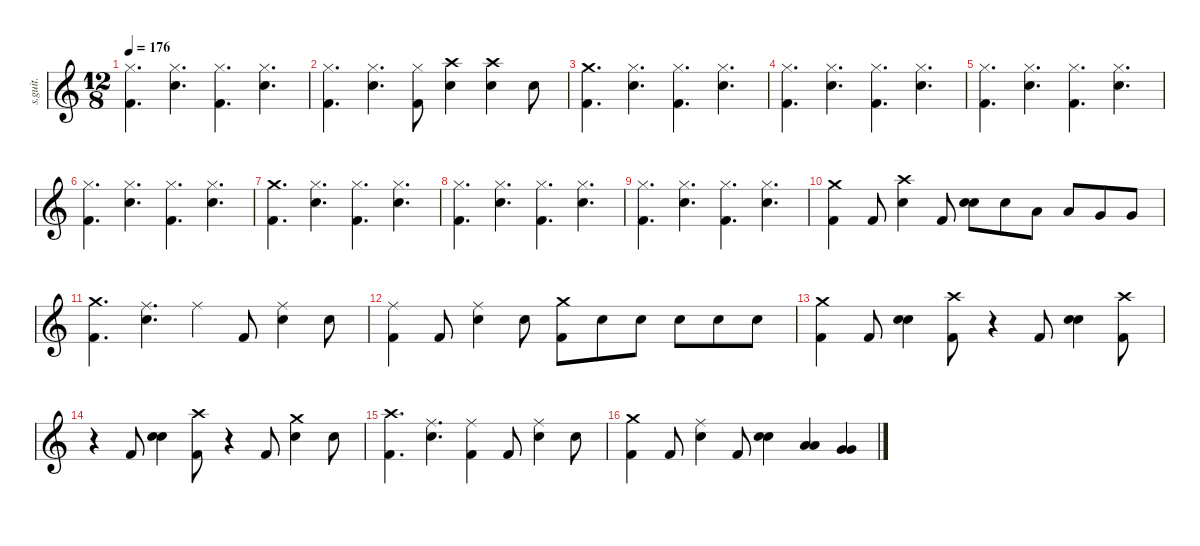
\defaultSystemsLayout 4
\hideDynamics
\bracketExtendMode nobrackets
\track ("Vinnie Paul" "s.guit.") {instrument percussion}
\staff {score}
\articulation defaults
\ts (12 8)
\tempo 176
\clef g2
\ks c
("Hi-Hat (closed)" "Kick (hit) 2").4{d lyrics (0 "") lyrics (1 "") lyrics (2 "") lyrics (3 "") lyrics (4 "") dy f} ("Hi-Hat (closed)" "Snare (hit) 2").4{d lyrics (0 "") lyrics (1 "") lyrics (2 "") lyrics (3 "") lyrics (4 "")} ("Hi-Hat (closed)" "Kick (hit) 2").4{d lyrics (0 "") lyrics (1 "") lyrics (2 "") lyrics (3 "") lyrics (4 "")} ("Hi-Hat (closed)" "Snare (hit) 2").4{d lyrics (0 "") lyrics (1 "") lyrics (2 "") lyrics (3 "") lyrics (4 "")} |
("Hi-Hat (closed)" "Kick (hit) 2").4{d lyrics (0 "") lyrics (1 "") lyrics (2 "") lyrics (3 "") lyrics (4 "")} ("Hi-Hat (closed)" "Snare (hit) 2").4{d lyrics (0 "") lyrics (1 "") lyrics (2 "") lyrics (3 "") lyrics (4 "")} ("Hi-Hat (closed)" "Kick (hit) 2").8{lyrics (0 "") lyrics (1 "") lyrics (2 "") lyrics (3 "") lyrics (4 "")} ("Crash high (hit)" "Snare (hit) 2").4{lyrics (0 "") lyrics (1 "") lyrics (2 "") lyrics (3 "") lyrics (4 "")} ("Crash high (hit)" "Snare (hit) 2").4{lyrics (0 "") lyrics (1 "") lyrics (2 "") lyrics (3 "") lyrics (4 "")} "Snare (hit) 2".8{lyrics (0 "") lyrics (1 "") lyrics (2 "") lyrics (3 "") lyrics (4 "")} |
("Crash medium (hit)" "Kick (hit) 2").4{d lyrics (0 "") lyrics (1 "") lyrics (2 "") lyrics (3 "") lyrics (4 "")} ("Hi-Hat (closed)" "Snare (hit) 2").4{d lyrics (0 "") lyrics (1 "") lyrics (2 "") lyrics (3 "") lyrics (4 "")} ("Hi-Hat (closed)" "Kick (hit) 2").4{d lyrics (0 "") lyrics (1 "") lyrics (2 "") lyrics (3 "") lyrics (4 "")} ("Hi-Hat (closed)" "Snare (hit) 2").4{d lyrics (0 "") lyrics (1 "") lyrics (2 "") lyrics (3 "") lyrics (4 "")} |
("Hi-Hat (closed)" "Kick (hit) 2").4{d lyrics (0 "") lyrics (1 "") lyrics (2 "") lyrics (3 "") lyrics (4 "")} ("Hi-Hat (closed)" "Snare (hit) 2").4{d lyrics (0 "") lyrics (1 "") lyrics (2 "") lyrics (3 "") lyrics (4 "")} ("Hi-Hat (closed)" "Kick (hit) 2").4{d lyrics (0 "") lyrics (1 "") lyrics (2 "") lyrics (3 "") lyrics (4 "")} ("Hi-Hat (closed)" "Snare (hit) 2").4{d lyrics (0 "") lyrics (1 "") lyrics (2 "") lyrics (3 "") lyrics (4 "")} |
("Hi-Hat (closed)" "Kick (hit) 2").4{d lyrics (0 "") lyrics (1 "") lyrics (2 "") lyrics (3 "") lyrics (4 "")} ("Hi-Hat (closed)" "Snare (hit) 2").4{d lyrics (0 "") lyrics (1 "") lyrics (2 "") lyrics (3 "") lyrics (4 "")} ("Hi-Hat (closed)" "Kick (hit) 2").4{d lyrics (0 "") lyrics (1 "") lyrics (2 "") lyrics (3 "") lyrics (4 "")} ("Hi-Hat (closed)" "Snare (hit) 2").4{d lyrics (0 "") lyrics (1 "") lyrics (2 "") lyrics (3 "") lyrics (4 "")} |
("Hi-Hat (closed)" "Kick (hit) 2").4{d lyrics (0 "") lyrics (1 "") lyrics (2 "") lyrics (3 "") lyrics (4 "")} ("Hi-Hat (closed)" "Snare (hit) 2").4{d lyrics (0 "") lyrics (1 "") lyrics (2 "") lyrics (3 "") lyrics (4 "")} ("Hi-Hat (closed)" "Kick (hit) 2").4{d lyrics (0 "") lyrics (1 "") lyrics (2 "") lyrics (3 "") lyrics (4 "")} ("Hi-Hat (closed)" "Snare (hit) 2").4{d lyrics (0 "") lyrics (1 "") lyrics (2 "") lyrics (3 "") lyrics (4 "")} |
("Crash medium (hit)" "Kick (hit) 2").4{d lyrics (0 "") lyrics (1 "") lyrics (2 "") lyrics (3 "") lyrics (4 "")} ("Hi-Hat (closed)" "Snare (hit) 2").4{d lyrics (0 "") lyrics (1 "") lyrics (2 "") lyrics (3 "") lyrics (4 "")} ("Hi-Hat (closed)" "Kick (hit) 2").4{d lyrics (0 "") lyrics (1 "") lyrics (2 "") lyrics (3 "") lyrics (4 "")} ("Hi-Hat (closed)" "Snare (hit) 2").4{d lyrics (0 "") lyrics (1 "") lyrics (2 "") lyrics (3 "") lyrics (4 "")} |
("Hi-Hat (closed)" "Kick (hit) 2").4{d lyrics (0 "") lyrics (1 "") lyrics (2 "") lyrics (3 "") lyrics (4 "")} ("Hi-Hat (closed)" "Snare (hit) 2").4{d lyrics (0 "") lyrics (1 "") lyrics (2 "") lyrics (3 "") lyrics (4 "")} ("Hi-Hat (closed)" "Kick (hit) 2").4{d lyrics (0 "") lyrics (1 "") lyrics (2 "") lyrics (3 "") lyrics (4 "")} ("Hi-Hat (closed)" "Snare (hit) 2").4{d lyrics (0 "") lyrics (1 "") lyrics (2 "") lyrics (3 "") lyrics (4 "")} |
("Hi-Hat (closed)" "Kick (hit) 2").4{d lyrics (0 "") lyrics (1 "") lyrics (2 "") lyrics (3 "") lyrics (4 "")} ("Hi-Hat (closed)" "Snare (hit) 2").4{d lyrics (0 "") lyrics (1 "") lyrics (2 "") lyrics (3 "") lyrics (4 "")} ("Hi-Hat (closed)" "Kick (hit) 2").4{d lyrics (0 "") lyrics (1 "") lyrics (2 "") lyrics (3 "") lyrics (4 "")} ("Hi-Hat (closed)" "Snare (hit) 2").4{d lyrics (0 "") lyrics (1 "") lyrics (2 "") lyrics (3 "") lyrics (4 "")} |
("Crash medium (hit)" "Kick (hit) 2").4{lyrics (0 "") lyrics (1 "") lyrics (2 "") lyrics (3 "") lyrics (4 "")} "Kick (hit) 2".8{lyrics (0 "") lyrics (1 "") lyrics (2 "") lyrics (3 "") lyrics (4 "")} ("Crash high (hit)" "Snare (hit) 2").4{lyrics (0 "") lyrics (1 "") lyrics (2 "") lyrics (3 "") lyrics (4 "")} "Kick (hit) 2".8{lyrics (0 "") lyrics (1 "") lyrics (2 "") lyrics (3 "") lyrics (4 "")} ("Snare (hit) 2" "Snare (hit) 2").8{lyrics (0 "") lyrics (1 "") lyrics (2 "") lyrics (3 "") lyrics (4 "")} "Snare (hit) 2".8{lyrics (0 "") lyrics (1 "") lyrics (2 "") lyrics (3 "") lyrics (4 "")} "Low Tom (hit)".8{lyrics (0 "") lyrics (1 "") lyrics (2 "") lyrics (3 "") lyrics (4 "")} "Low Tom (hit)".8{lyrics (0 "") lyrics (1 "") lyrics (2 "") lyrics (3 "") lyrics (4 "")} "Very Low Tom (hit)".8{lyrics (0 "") lyrics (1 "") lyrics (2 "") lyrics (3 "") lyrics (4 "")} "Very Low Tom (hit)".8{lyrics (0 "") lyrics (1 "") lyrics (2 "") lyrics (3 "") lyrics (4 "")} |
("Crash medium (hit)" "Kick (hit) 2").4{d lyrics (0 "") lyrics (1 "") lyrics (2 "") lyrics (3 "") lyrics (4 "")} ("Ride (middle)" "Snare (hit) 2").4{d lyrics (0 "") lyrics (1 "") lyrics (2 "") lyrics (3 "") lyrics (4 "")} "Ride (middle)".4{lyrics (0 "") lyrics (1 "") lyrics (2 "") lyrics (3 "") lyrics (4 "")} "Kick (hit) 2".8{lyrics (0 "") lyrics (1 "") lyrics (2 "") lyrics (3 "") lyrics (4 "")} ("Ride (middle)" "Snare (hit) 2").4{lyrics (0 "") lyrics (1 "") lyrics (2 "") lyrics (3 "") lyrics (4 "")} "Snare (hit) 2".8{lyrics (0 "") lyrics (1 "") lyrics (2 "") lyrics (3 "") lyrics (4 "")} |
("Ride (middle)" "Kick (hit) 2").4{lyrics (0 "") lyrics (1 "") lyrics (2 "") lyrics (3 "") lyrics (4 "")} "Kick (hit) 2".8{lyrics (0 "") lyrics (1 "") lyrics (2 "") lyrics (3 "") lyrics (4 "")} ("Ride (middle)" "Snare (hit) 2").4{lyrics (0 "") lyrics (1 "") lyrics (2 "") lyrics (3 "") lyrics (4 "")} "Snare (hit) 2".8{lyrics (0 "") lyrics (1 "") lyrics (2 "") lyrics (3 "") lyrics (4 "")} ("Crash medium (hit)" "Kick (hit) 2").8{lyrics (0 "") lyrics (1 "") lyrics (2 "") lyrics (3 "") lyrics (4 "")} "Snare (hit) 2".8{lyrics (0 "") lyrics (1 "") lyrics (2 "") lyrics (3 "") lyrics (4 "")} "Snare (hit) 2".8{lyrics (0 "") lyrics (1 "") lyrics (2 "") lyrics (3 "") lyrics (4 "")} "Snare (hit) 2".8{lyrics (0 "") lyrics (1 "") lyrics (2 "") lyrics (3 "") lyrics (4 "")} "Snare (hit) 2".8{lyrics (0 "") lyrics (1 "") lyrics (2 "") lyrics (3 "") lyrics (4 "")} "Snare (hit) 2".8{lyrics (0 "") lyrics (1 "") lyrics (2 "") lyrics (3 "") lyrics (4 "")} |
("Crash medium (hit)" "Kick (hit) 2").4{lyrics (0 "") lyrics (1 "") lyrics (2 "") lyrics (3 "") lyrics (4 "")} "Kick (hit) 2".8{lyrics (0 "") lyrics (1 "") lyrics (2 "") lyrics (3 "") lyrics (4 "")} ("Snare (hit) 2" "Snare (hit) 2").4{lyrics (0 "") lyrics (1 "") lyrics (2 "") lyrics (3 "") lyrics (4 "")} ("Crash high (hit)" "Kick (hit) 2").8{lyrics (0 "") lyrics (1 "") lyrics (2 "") lyrics (3 "") lyrics (4 "")} r.4 "Kick (hit) 2".8{lyrics (0 "") lyrics (1 "") lyrics (2 "") lyrics (3 "") lyrics (4 "")} ("Snare (hit) 2" "Snare (hit) 2").4{lyrics (0 "") lyrics (1 "") lyrics (2 "") lyrics (3 "") lyrics (4 "")} ("Crash high (hit)" "Kick (hit) 2").8{lyrics (0 "") lyrics (1 "") lyrics (2 "") lyrics (3 "") lyrics (4 "")} |
r.4 "Kick (hit) 2".8{lyrics (0 "") lyrics (1 "") lyrics (2 "") lyrics (3 "") lyrics (4 "")} ("Snare (hit) 2" "Snare (hit) 2").4{lyrics (0 "") lyrics (1 "") lyrics (2 "") lyrics (3 "") lyrics (4 "")} ("Crash high (hit)" "Kick (hit) 2").8{lyrics (0 "") lyrics (1 "") lyrics (2 "") lyrics (3 "") lyrics (4 "")} r.4 "Kick (hit) 2".8{lyrics (0 "") lyrics (1 "") lyrics (2 "") lyrics (3 "") lyrics (4 "")} ("Crash medium (hit)" "Snare (hit) 2").4{lyrics (0 "") lyrics (1 "") lyrics (2 "") lyrics (3 "") lyrics (4 "")} "Snare (hit) 2".8{lyrics (0 "") lyrics (1 "") lyrics (2 "") lyrics (3 "") lyrics (4 "")} |
("Crash high (hit)" "Kick (hit) 2").4{d lyrics (0 "") lyrics (1 "") lyrics (2 "") lyrics (3 "") lyrics (4 "")} ("Ride (middle)" "Snare (hit) 2").4{d lyrics (0 "") lyrics (1 "") lyrics (2 "") lyrics (3 "") lyrics (4 "")} ("Ride (middle)" "Kick (hit) 2").4{lyrics (0 "") lyrics (1 "") lyrics (2 "") lyrics (3 "") lyrics (4 "")} "Kick (hit) 2".8{lyrics (0 "") lyrics (1 "") lyrics (2 "") lyrics (3 "") lyrics (4 "")} ("Ride (middle)" "Snare (hit) 2").4{lyrics (0 "") lyrics (1 "") lyrics (2 "") lyrics (3 "") lyrics (4 "")} "Snare (hit) 2".8{lyrics (0 "") lyrics (1 "") lyrics (2 "") lyrics (3 "") lyrics (4 "")} |
("Crash medium (hit)" "Kick (hit) 2").4{lyrics (0 "") lyrics (1 "") lyrics (2 "") lyrics (3 "") lyrics (4 "")} "Kick (hit) 2".8{lyrics (0 "") lyrics (1 "") lyrics (2 "") lyrics (3 "") lyrics (4 "")} ("Ride (middle)" "Snare (hit) 2").4{lyrics (0 "") lyrics (1 "") lyrics (2 "") lyrics (3 "") lyrics (4 "")} "Kick (hit) 2".8{lyrics (0 "") lyrics (1 "") lyrics (2 "") lyrics (3 "") lyrics (4 "")} ("Snare (hit) 2" "Snare (hit) 2").4{lyrics (0 "") lyrics (1 "") lyrics (2 "") lyrics (3 "") lyrics (4 "")} ("Low Tom (hit)" "Low Tom (hit)").4{lyrics (0 "") lyrics (1 "") lyrics (2 "") lyrics (3 "") lyrics (4 "")} ("Very Low Tom (hit)" "Very Low Tom (hit)").4{lyrics (0 "") lyrics (1 "") lyrics (2 "") lyrics (3 "") lyrics (4 "")}
